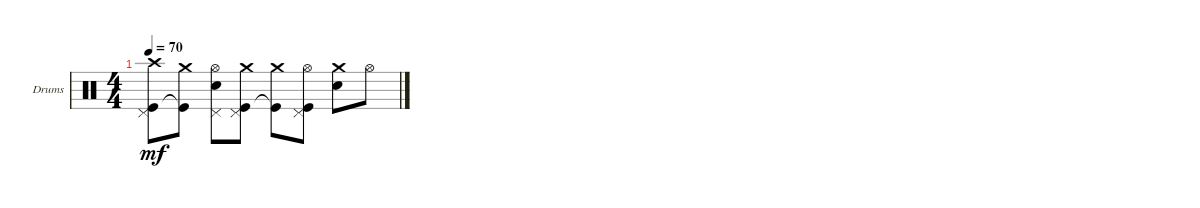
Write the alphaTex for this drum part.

\defaultSystemsLayout 4
\bracketExtendMode groupsimilarinstruments
\firstSystemTrackNameOrientation horizontal
\otherSystemsTrackNameOrientation horizontal
\track ("Drum" "Drums") {multiBarRest instrument percussion}
\staff {score}
\articulation defaults
\ts (4 4)
\tempo 70
\clef neutral
\ks c
("Kick (hit)" "Pedal Hi-Hat (hit)" "Crash high (hit)").8{dy mf} ("Kick (hit)"{t} "Crash medium (hit)").8 ("Snare (hit) 2" "Pedal Hi-Hat (hit)" "Hi-Hat (open)").8 ("Kick (hit)" "Pedal Hi-Hat (hit)" "Crash medium (hit)").8 ("Kick (hit)"{t} "Crash medium (hit)").8 ("Kick (hit)" "Pedal Hi-Hat (hit)" "Hi-Hat (open)").8 ("Snare (hit) 2" "Crash medium (hit)").8 "Hi-Hat (open)".8
